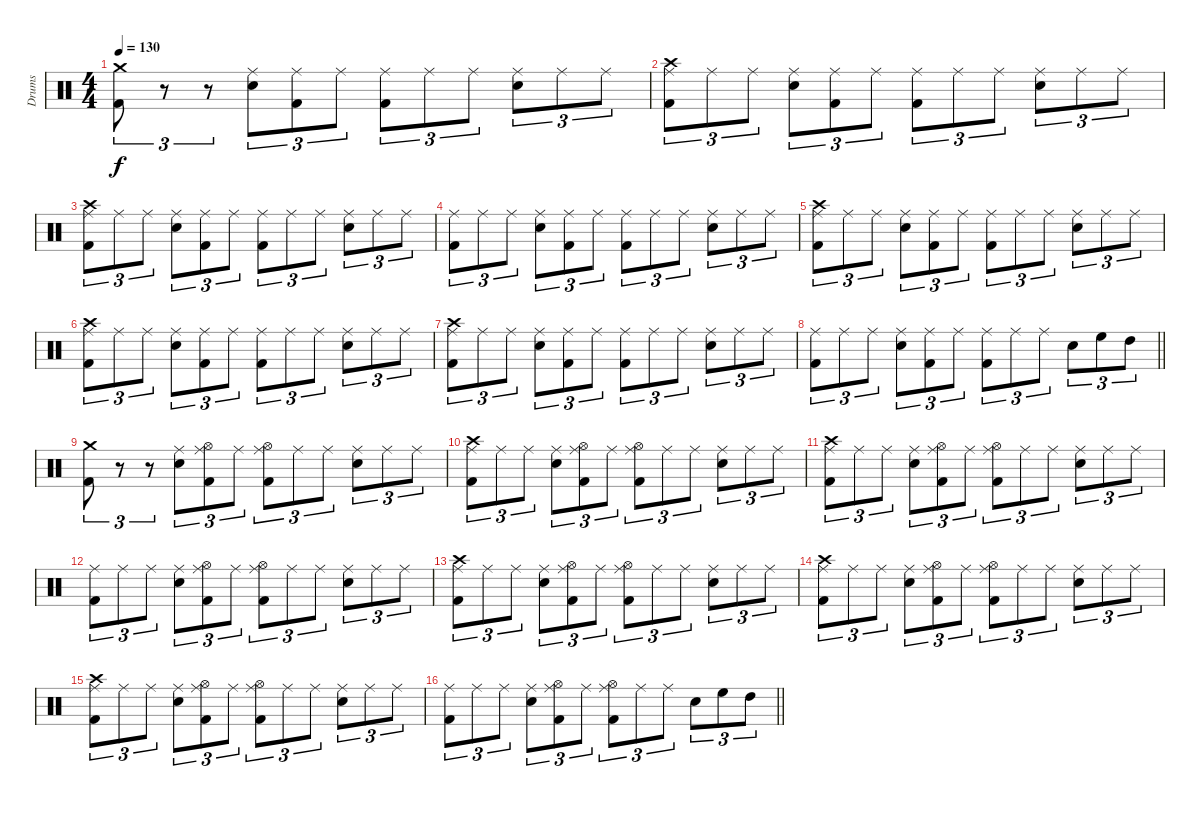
\track ("Drums" "Drums") {instrument percussion}
\staff {score}
\articulation defaults
\ts (4 4)
\tempo 130
\clef neutral
\ks c
("Crash medium (hit)" "Kick (hit) 2").8{tu (3 2) dy f} r.8{tu (3 2)} r.8{tu (3 2)} ("Ride (middle)" "Electric Snare (hit)").8{tu (3 2)} ("Ride (middle)" "Kick (hit) 2").8{tu (3 2)} "Ride (middle)".8{tu (3 2)} ("Ride (middle)" "Kick (hit) 2").8{tu (3 2)} "Ride (middle)".8{tu (3 2)} "Ride (middle)".8{tu (3 2)} ("Ride (middle)" "Electric Snare (hit)").8{tu (3 2)} "Ride (middle)".8{tu (3 2)} "Ride (middle)".8{tu (3 2)} |
("Crash high (hit)" "Ride (middle)" "Kick (hit) 2").8{tu (3 2)} "Ride (middle)".8{tu (3 2)} "Ride (middle)".8{tu (3 2)} ("Ride (middle)" "Electric Snare (hit)").8{tu (3 2)} ("Ride (middle)" "Kick (hit) 2").8{tu (3 2)} "Ride (middle)".8{tu (3 2)} ("Ride (middle)" "Kick (hit) 2").8{tu (3 2)} "Ride (middle)".8{tu (3 2)} "Ride (middle)".8{tu (3 2)} ("Ride (middle)" "Electric Snare (hit)").8{tu (3 2)} "Ride (middle)".8{tu (3 2)} "Ride (middle)".8{tu (3 2)} |
("Crash high (hit)" "Ride (middle)" "Kick (hit) 2").8{tu (3 2)} "Ride (middle)".8{tu (3 2)} "Ride (middle)".8{tu (3 2)} ("Ride (middle)" "Electric Snare (hit)").8{tu (3 2)} ("Ride (middle)" "Kick (hit) 2").8{tu (3 2)} "Ride (middle)".8{tu (3 2)} ("Ride (middle)" "Kick (hit) 2").8{tu (3 2)} "Ride (middle)".8{tu (3 2)} "Ride (middle)".8{tu (3 2)} ("Ride (middle)" "Electric Snare (hit)").8{tu (3 2)} "Ride (middle)".8{tu (3 2)} "Ride (middle)".8{tu (3 2)} |
("Ride (middle)" "Kick (hit) 2").8{tu (3 2)} "Ride (middle)".8{tu (3 2)} "Ride (middle)".8{tu (3 2)} ("Ride (middle)" "Electric Snare (hit)").8{tu (3 2)} ("Ride (middle)" "Kick (hit) 2").8{tu (3 2)} "Ride (middle)".8{tu (3 2)} ("Ride (middle)" "Kick (hit) 2").8{tu (3 2)} "Ride (middle)".8{tu (3 2)} "Ride (middle)".8{tu (3 2)} ("Ride (middle)" "Electric Snare (hit)").8{tu (3 2)} "Ride (middle)".8{tu (3 2)} "Ride (middle)".8{tu (3 2)} |
("Crash high (hit)" "Ride (middle)" "Kick (hit) 2").8{tu (3 2)} "Ride (middle)".8{tu (3 2)} "Ride (middle)".8{tu (3 2)} ("Ride (middle)" "Electric Snare (hit)").8{tu (3 2)} ("Ride (middle)" "Kick (hit) 2").8{tu (3 2)} "Ride (middle)".8{tu (3 2)} ("Ride (middle)" "Kick (hit) 2").8{tu (3 2)} "Ride (middle)".8{tu (3 2)} "Ride (middle)".8{tu (3 2)} ("Ride (middle)" "Electric Snare (hit)").8{tu (3 2)} "Ride (middle)".8{tu (3 2)} "Ride (middle)".8{tu (3 2)} |
("Crash high (hit)" "Ride (middle)" "Kick (hit) 2").8{tu (3 2)} "Ride (middle)".8{tu (3 2)} "Ride (middle)".8{tu (3 2)} ("Ride (middle)" "Electric Snare (hit)").8{tu (3 2)} ("Ride (middle)" "Kick (hit) 2").8{tu (3 2)} "Ride (middle)".8{tu (3 2)} ("Ride (middle)" "Kick (hit) 2").8{tu (3 2)} "Ride (middle)".8{tu (3 2)} "Ride (middle)".8{tu (3 2)} ("Ride (middle)" "Electric Snare (hit)").8{tu (3 2)} "Ride (middle)".8{tu (3 2)} "Ride (middle)".8{tu (3 2)} |
("Crash high (hit)" "Ride (middle)" "Kick (hit) 2").8{tu (3 2)} "Ride (middle)".8{tu (3 2)} "Ride (middle)".8{tu (3 2)} ("Ride (middle)" "Electric Snare (hit)").8{tu (3 2)} ("Ride (middle)" "Kick (hit) 2").8{tu (3 2)} "Ride (middle)".8{tu (3 2)} ("Ride (middle)" "Kick (hit) 2").8{tu (3 2)} "Ride (middle)".8{tu (3 2)} "Ride (middle)".8{tu (3 2)} ("Ride (middle)" "Electric Snare (hit)").8{tu (3 2)} "Ride (middle)".8{tu (3 2)} "Ride (middle)".8{tu (3 2)} |
\barLineRight lightlight
("Ride (middle)" "Kick (hit) 2").8{tu (3 2)} "Ride (middle)".8{tu (3 2)} "Ride (middle)".8{tu (3 2)} ("Ride (middle)" "Electric Snare (hit)").8{tu (3 2)} ("Ride (middle)" "Kick (hit) 2").8{tu (3 2)} "Ride (middle)".8{tu (3 2)} ("Ride (middle)" "Kick (hit) 2").8{tu (3 2)} "Ride (middle)".8{tu (3 2)} "Ride (middle)".8{tu (3 2)} "Electric Snare (hit)".8{tu (3 2)} "High Floor Tom (hit)".8{tu (3 2)} "High Tom (hit)".8{tu (3 2)} |
("Crash medium (hit)" "Kick (hit) 2").8{tu (3 2)} r.8{tu (3 2)} r.8{tu (3 2)} ("Ride (middle)" "Electric Snare (hit)").8{tu (3 2)} ("Hi-Hat (open)" "Ride (middle)" "Kick (hit) 2").8{tu (3 2)} "Ride (middle)".8{tu (3 2)} ("Hi-Hat (open)" "Ride (middle)" "Kick (hit) 2").8{tu (3 2)} "Ride (middle)".8{tu (3 2)} "Ride (middle)".8{tu (3 2)} ("Ride (middle)" "Electric Snare (hit)").8{tu (3 2)} "Ride (middle)".8{tu (3 2)} "Ride (middle)".8{tu (3 2)} |
("Crash high (hit)" "Ride (middle)" "Kick (hit) 2").8{tu (3 2)} "Ride (middle)".8{tu (3 2)} "Ride (middle)".8{tu (3 2)} ("Ride (middle)" "Electric Snare (hit)").8{tu (3 2)} ("Hi-Hat (open)" "Ride (middle)" "Kick (hit) 2").8{tu (3 2)} "Ride (middle)".8{tu (3 2)} ("Hi-Hat (open)" "Ride (middle)" "Kick (hit) 2").8{tu (3 2)} "Ride (middle)".8{tu (3 2)} "Ride (middle)".8{tu (3 2)} ("Ride (middle)" "Electric Snare (hit)").8{tu (3 2)} "Ride (middle)".8{tu (3 2)} "Ride (middle)".8{tu (3 2)} |
("Crash high (hit)" "Ride (middle)" "Kick (hit) 2").8{tu (3 2)} "Ride (middle)".8{tu (3 2)} "Ride (middle)".8{tu (3 2)} ("Ride (middle)" "Electric Snare (hit)").8{tu (3 2)} ("Hi-Hat (open)" "Ride (middle)" "Kick (hit) 2").8{tu (3 2)} "Ride (middle)".8{tu (3 2)} ("Hi-Hat (open)" "Ride (middle)" "Kick (hit) 2").8{tu (3 2)} "Ride (middle)".8{tu (3 2)} "Ride (middle)".8{tu (3 2)} ("Ride (middle)" "Electric Snare (hit)").8{tu (3 2)} "Ride (middle)".8{tu (3 2)} "Ride (middle)".8{tu (3 2)} |
("Ride (middle)" "Kick (hit) 2").8{tu (3 2)} "Ride (middle)".8{tu (3 2)} "Ride (middle)".8{tu (3 2)} ("Ride (middle)" "Electric Snare (hit)").8{tu (3 2)} ("Hi-Hat (open)" "Ride (middle)" "Kick (hit) 2").8{tu (3 2)} "Ride (middle)".8{tu (3 2)} ("Hi-Hat (open)" "Ride (middle)" "Kick (hit) 2").8{tu (3 2)} "Ride (middle)".8{tu (3 2)} "Ride (middle)".8{tu (3 2)} ("Ride (middle)" "Electric Snare (hit)").8{tu (3 2)} "Ride (middle)".8{tu (3 2)} "Ride (middle)".8{tu (3 2)} |
("Crash high (hit)" "Ride (middle)" "Kick (hit) 2").8{tu (3 2)} "Ride (middle)".8{tu (3 2)} "Ride (middle)".8{tu (3 2)} ("Ride (middle)" "Electric Snare (hit)").8{tu (3 2)} ("Hi-Hat (open)" "Ride (middle)" "Kick (hit) 2").8{tu (3 2)} "Ride (middle)".8{tu (3 2)} ("Hi-Hat (open)" "Ride (middle)" "Kick (hit) 2").8{tu (3 2)} "Ride (middle)".8{tu (3 2)} "Ride (middle)".8{tu (3 2)} ("Ride (middle)" "Electric Snare (hit)").8{tu (3 2)} "Ride (middle)".8{tu (3 2)} "Ride (middle)".8{tu (3 2)} |
("Crash high (hit)" "Ride (middle)" "Kick (hit) 2").8{tu (3 2)} "Ride (middle)".8{tu (3 2)} "Ride (middle)".8{tu (3 2)} ("Ride (middle)" "Electric Snare (hit)").8{tu (3 2)} ("Hi-Hat (open)" "Ride (middle)" "Kick (hit) 2").8{tu (3 2)} "Ride (middle)".8{tu (3 2)} ("Hi-Hat (open)" "Ride (middle)" "Kick (hit) 2").8{tu (3 2)} "Ride (middle)".8{tu (3 2)} "Ride (middle)".8{tu (3 2)} ("Ride (middle)" "Electric Snare (hit)").8{tu (3 2)} "Ride (middle)".8{tu (3 2)} "Ride (middle)".8{tu (3 2)} |
("Crash high (hit)" "Ride (middle)" "Kick (hit) 2").8{tu (3 2)} "Ride (middle)".8{tu (3 2)} "Ride (middle)".8{tu (3 2)} ("Ride (middle)" "Electric Snare (hit)").8{tu (3 2)} ("Hi-Hat (open)" "Ride (middle)" "Kick (hit) 2").8{tu (3 2)} "Ride (middle)".8{tu (3 2)} ("Hi-Hat (open)" "Ride (middle)" "Kick (hit) 2").8{tu (3 2)} "Ride (middle)".8{tu (3 2)} "Ride (middle)".8{tu (3 2)} ("Ride (middle)" "Electric Snare (hit)").8{tu (3 2)} "Ride (middle)".8{tu (3 2)} "Ride (middle)".8{tu (3 2)} |
\barLineRight lightlight
("Ride (middle)" "Kick (hit) 2").8{tu (3 2)} "Ride (middle)".8{tu (3 2)} "Ride (middle)".8{tu (3 2)} ("Ride (middle)" "Electric Snare (hit)").8{tu (3 2)} ("Hi-Hat (open)" "Ride (middle)" "Kick (hit) 2").8{tu (3 2)} "Ride (middle)".8{tu (3 2)} ("Hi-Hat (open)" "Ride (middle)" "Kick (hit) 2").8{tu (3 2)} "Ride (middle)".8{tu (3 2)} "Ride (middle)".8{tu (3 2)} "Electric Snare (hit)".8{tu (3 2)} "High Floor Tom (hit)".8{tu (3 2)} "High Tom (hit)".8{tu (3 2)}
